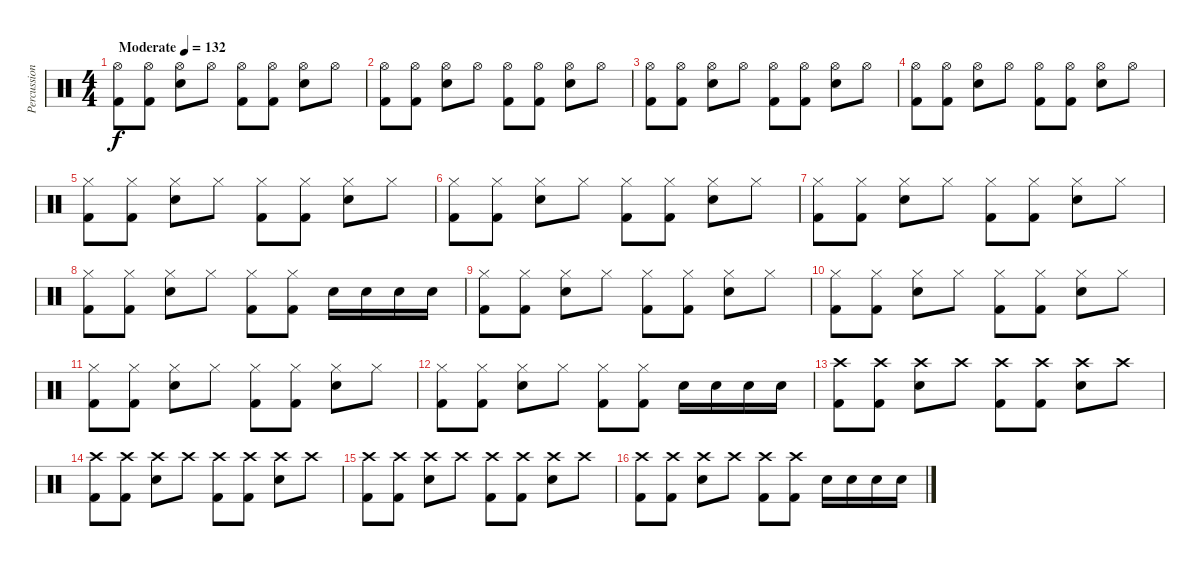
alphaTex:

\track ("Percussion" "Percussion") {instrument percussion}
\staff {score}
\articulation defaults
\ts (4 4)
\tempo (132 "Moderate")
\clef neutral
\ks c
("Hi-Hat (open)" "Kick (hit) 2").8{dy f} ("Hi-Hat (open)" "Kick (hit) 2").8 ("Hi-Hat (open)" "Electric Snare (hit)").8 "Hi-Hat (open)".8 ("Hi-Hat (open)" "Kick (hit) 2").8 ("Hi-Hat (open)" "Kick (hit) 2").8 ("Hi-Hat (open)" "Electric Snare (hit)").8 "Hi-Hat (open)".8 |
("Hi-Hat (open)" "Kick (hit) 2").8 ("Hi-Hat (open)" "Kick (hit) 2").8 ("Hi-Hat (open)" "Electric Snare (hit)").8 "Hi-Hat (open)".8 ("Hi-Hat (open)" "Kick (hit) 2").8 ("Hi-Hat (open)" "Kick (hit) 2").8 ("Hi-Hat (open)" "Electric Snare (hit)").8 "Hi-Hat (open)".8 |
("Hi-Hat (open)" "Kick (hit) 2").8 ("Hi-Hat (open)" "Kick (hit) 2").8 ("Hi-Hat (open)" "Electric Snare (hit)").8 "Hi-Hat (open)".8 ("Hi-Hat (open)" "Kick (hit) 2").8 ("Hi-Hat (open)" "Kick (hit) 2").8 ("Hi-Hat (open)" "Electric Snare (hit)").8 "Hi-Hat (open)".8 |
("Hi-Hat (open)" "Kick (hit) 2").8 ("Hi-Hat (open)" "Kick (hit) 2").8 ("Hi-Hat (open)" "Electric Snare (hit)").8 "Hi-Hat (open)".8 ("Hi-Hat (open)" "Kick (hit) 2").8 ("Hi-Hat (open)" "Kick (hit) 2").8 ("Hi-Hat (open)" "Electric Snare (hit)").8 "Hi-Hat (open)".8 |
("Hi-Hat (closed)" "Kick (hit) 2").8 ("Hi-Hat (closed)" "Kick (hit) 2").8 ("Hi-Hat (closed)" "Electric Snare (hit)").8 "Hi-Hat (closed)".8 ("Hi-Hat (closed)" "Kick (hit) 2").8 ("Hi-Hat (closed)" "Kick (hit) 2").8 ("Hi-Hat (closed)" "Electric Snare (hit)").8 "Hi-Hat (closed)".8 |
("Hi-Hat (closed)" "Kick (hit) 2").8 ("Hi-Hat (closed)" "Kick (hit) 2").8 ("Hi-Hat (closed)" "Electric Snare (hit)").8 "Hi-Hat (closed)".8 ("Hi-Hat (closed)" "Kick (hit) 2").8 ("Hi-Hat (closed)" "Kick (hit) 2").8 ("Hi-Hat (closed)" "Electric Snare (hit)").8 "Hi-Hat (closed)".8 |
("Hi-Hat (closed)" "Kick (hit) 2").8 ("Hi-Hat (closed)" "Kick (hit) 2").8 ("Hi-Hat (closed)" "Electric Snare (hit)").8 "Hi-Hat (closed)".8 ("Hi-Hat (closed)" "Kick (hit) 2").8 ("Hi-Hat (closed)" "Kick (hit) 2").8 ("Hi-Hat (closed)" "Electric Snare (hit)").8 "Hi-Hat (closed)".8 |
("Hi-Hat (closed)" "Kick (hit) 2").8 ("Hi-Hat (closed)" "Kick (hit) 2").8 ("Hi-Hat (closed)" "Electric Snare (hit)").8 "Hi-Hat (closed)".8 ("Hi-Hat (closed)" "Kick (hit) 2").8 ("Hi-Hat (closed)" "Kick (hit) 2").8 "Electric Snare (hit)".16 "Electric Snare (hit)".16 "Electric Snare (hit)".16 "Electric Snare (hit)".16 |
("Hi-Hat (closed)" "Kick (hit) 2").8 ("Hi-Hat (closed)" "Kick (hit) 2").8 ("Hi-Hat (closed)" "Electric Snare (hit)").8 "Hi-Hat (closed)".8 ("Hi-Hat (closed)" "Kick (hit) 2").8 ("Hi-Hat (closed)" "Kick (hit) 2").8 ("Hi-Hat (closed)" "Electric Snare (hit)").8 "Hi-Hat (closed)".8 |
("Hi-Hat (closed)" "Kick (hit) 2").8 ("Hi-Hat (closed)" "Kick (hit) 2").8 ("Hi-Hat (closed)" "Electric Snare (hit)").8 "Hi-Hat (closed)".8 ("Hi-Hat (closed)" "Kick (hit) 2").8 ("Hi-Hat (closed)" "Kick (hit) 2").8 ("Hi-Hat (closed)" "Electric Snare (hit)").8 "Hi-Hat (closed)".8 |
("Hi-Hat (closed)" "Kick (hit) 2").8 ("Hi-Hat (closed)" "Kick (hit) 2").8 ("Hi-Hat (closed)" "Electric Snare (hit)").8 "Hi-Hat (closed)".8 ("Hi-Hat (closed)" "Kick (hit) 2").8 ("Hi-Hat (closed)" "Kick (hit) 2").8 ("Hi-Hat (closed)" "Electric Snare (hit)").8 "Hi-Hat (closed)".8 |
("Hi-Hat (closed)" "Kick (hit) 2").8 ("Hi-Hat (closed)" "Kick (hit) 2").8 ("Hi-Hat (closed)" "Electric Snare (hit)").8 "Hi-Hat (closed)".8 ("Hi-Hat (closed)" "Kick (hit) 2").8 ("Hi-Hat (closed)" "Kick (hit) 2").8 "Electric Snare (hit)".16 "Electric Snare (hit)".16 "Electric Snare (hit)".16 "Electric Snare (hit)".16 |
("Crash high (hit)" "Kick (hit) 2").8 ("Crash high (hit)" "Kick (hit) 2").8 ("Crash high (hit)" "Electric Snare (hit)").8 "Crash high (hit)".8 ("Crash high (hit)" "Kick (hit) 2").8 ("Crash high (hit)" "Kick (hit) 2").8 ("Crash high (hit)" "Electric Snare (hit)").8 "Crash high (hit)".8 |
("Crash high (hit)" "Kick (hit) 2").8 ("Crash high (hit)" "Kick (hit) 2").8 ("Crash high (hit)" "Electric Snare (hit)").8 "Crash high (hit)".8 ("Crash high (hit)" "Kick (hit) 2").8 ("Crash high (hit)" "Kick (hit) 2").8 ("Crash high (hit)" "Electric Snare (hit)").8 "Crash high (hit)".8 |
("Crash high (hit)" "Kick (hit) 2").8 ("Crash high (hit)" "Kick (hit) 2").8 ("Crash high (hit)" "Electric Snare (hit)").8 "Crash high (hit)".8 ("Crash high (hit)" "Kick (hit) 2").8 ("Crash high (hit)" "Kick (hit) 2").8 ("Crash high (hit)" "Electric Snare (hit)").8 "Crash high (hit)".8 |
("Crash high (hit)" "Kick (hit) 2").8 ("Crash high (hit)" "Kick (hit) 2").8 ("Crash high (hit)" "Electric Snare (hit)").8 "Crash high (hit)".8 ("Crash high (hit)" "Kick (hit) 2").8 ("Crash high (hit)" "Kick (hit) 2").8 "Electric Snare (hit)".16 "Electric Snare (hit)".16 "Electric Snare (hit)".16 "Electric Snare (hit)".16
